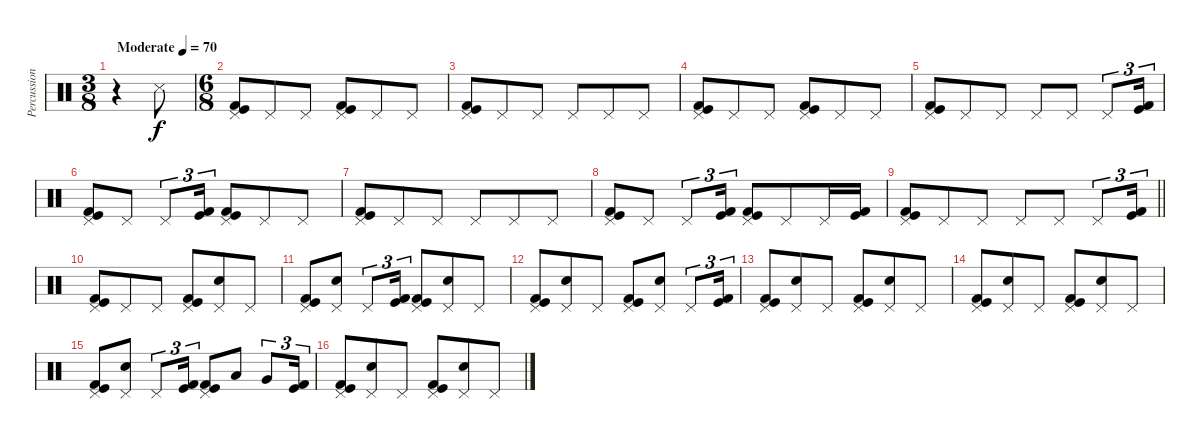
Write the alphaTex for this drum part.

\track ("Percussion" "Percussion") {instrument percussion}
\staff {score}
\articulation defaults
\ts (3 8)
\tempo (70 "Moderate")
\clef neutral
\ks c
r.4{dy f} "Snare (side stick) 3".8 |
\ts (6 8)
("Pedal Hi-Hat (hit)" "Kick (hit)" "Kick (hit) 2").8 "Pedal Hi-Hat (hit)".8 "Pedal Hi-Hat (hit)".8 ("Pedal Hi-Hat (hit)" "Kick (hit)" "Kick (hit) 2").8 "Pedal Hi-Hat (hit)".8 "Pedal Hi-Hat (hit)".8 |
("Pedal Hi-Hat (hit)" "Kick (hit)" "Kick (hit) 2").8 "Pedal Hi-Hat (hit)".8 "Pedal Hi-Hat (hit)".8 "Pedal Hi-Hat (hit)".8 "Pedal Hi-Hat (hit)".8 "Pedal Hi-Hat (hit)".8 |
("Pedal Hi-Hat (hit)" "Kick (hit)" "Kick (hit) 2").8 "Pedal Hi-Hat (hit)".8 "Pedal Hi-Hat (hit)".8 ("Pedal Hi-Hat (hit)" "Kick (hit)" "Kick (hit) 2").8 "Pedal Hi-Hat (hit)".8 "Pedal Hi-Hat (hit)".8 |
("Pedal Hi-Hat (hit)" "Kick (hit)" "Kick (hit) 2").8 "Pedal Hi-Hat (hit)".8 "Pedal Hi-Hat (hit)".8 "Pedal Hi-Hat (hit)".8 "Pedal Hi-Hat (hit)".8 "Pedal Hi-Hat (hit)".8{tu (3 2)} ("Kick (hit)" "Kick (hit) 2").16{tu (3 2)} |
("Pedal Hi-Hat (hit)" "Kick (hit)" "Kick (hit) 2").8 "Pedal Hi-Hat (hit)".8 "Pedal Hi-Hat (hit)".8{tu (3 2)} ("Kick (hit)" "Kick (hit) 2").16{tu (3 2)} ("Pedal Hi-Hat (hit)" "Kick (hit)" "Kick (hit) 2").8 "Pedal Hi-Hat (hit)".8 "Pedal Hi-Hat (hit)".8 |
("Pedal Hi-Hat (hit)" "Kick (hit)" "Kick (hit) 2").8 "Pedal Hi-Hat (hit)".8 "Pedal Hi-Hat (hit)".8 "Pedal Hi-Hat (hit)".8 "Pedal Hi-Hat (hit)".8 "Pedal Hi-Hat (hit)".8 |
("Pedal Hi-Hat (hit)" "Kick (hit)" "Kick (hit) 2").8 "Pedal Hi-Hat (hit)".8 "Pedal Hi-Hat (hit)".8{tu (3 2)} ("Kick (hit)" "Kick (hit) 2").16{tu (3 2)} ("Pedal Hi-Hat (hit)" "Kick (hit)" "Kick (hit) 2").8 "Pedal Hi-Hat (hit)".8 "Pedal Hi-Hat (hit)".16 ("Kick (hit)" "Kick (hit) 2").16 |
\barLineRight lightlight
("Pedal Hi-Hat (hit)" "Kick (hit)" "Kick (hit) 2").8 "Pedal Hi-Hat (hit)".8 "Pedal Hi-Hat (hit)".8 "Pedal Hi-Hat (hit)".8 "Pedal Hi-Hat (hit)".8 "Pedal Hi-Hat (hit)".8{tu (3 2)} ("Kick (hit)" "Kick (hit) 2").16{tu (3 2)} |
\section ("" "")
("Pedal Hi-Hat (hit)" "Kick (hit)" "Kick (hit) 2").8 "Pedal Hi-Hat (hit)".8 "Pedal Hi-Hat (hit)".8 ("Pedal Hi-Hat (hit)" "Kick (hit)" "Kick (hit) 2").8 ("Pedal Hi-Hat (hit)" "Electric Snare (hit)").8 "Pedal Hi-Hat (hit)".8 |
("Pedal Hi-Hat (hit)" "Kick (hit)" "Kick (hit) 2").8 ("Pedal Hi-Hat (hit)" "Electric Snare (hit)").8 "Pedal Hi-Hat (hit)".8{tu (3 2)} ("Kick (hit)" "Kick (hit) 2").16{tu (3 2)} ("Pedal Hi-Hat (hit)" "Kick (hit)" "Kick (hit) 2").8 ("Pedal Hi-Hat (hit)" "Electric Snare (hit)").8 "Pedal Hi-Hat (hit)".8 |
("Pedal Hi-Hat (hit)" "Kick (hit)" "Kick (hit) 2").8 ("Pedal Hi-Hat (hit)" "Electric Snare (hit)").8 "Pedal Hi-Hat (hit)".8 ("Pedal Hi-Hat (hit)" "Kick (hit)" "Kick (hit) 2").8 ("Pedal Hi-Hat (hit)" "Electric Snare (hit)").8 "Pedal Hi-Hat (hit)".8{tu (3 2)} ("Kick (hit)" "Kick (hit) 2").16{tu (3 2)} |
("Pedal Hi-Hat (hit)" "Kick (hit)" "Kick (hit) 2").8 ("Pedal Hi-Hat (hit)" "Electric Snare (hit)").8 "Pedal Hi-Hat (hit)".8 ("Pedal Hi-Hat (hit)" "Kick (hit)" "Kick (hit) 2").8 ("Pedal Hi-Hat (hit)" "Electric Snare (hit)").8 "Pedal Hi-Hat (hit)".8 |
("Pedal Hi-Hat (hit)" "Kick (hit)" "Kick (hit) 2").8 ("Pedal Hi-Hat (hit)" "Electric Snare (hit)").8 "Pedal Hi-Hat (hit)".8 ("Pedal Hi-Hat (hit)" "Kick (hit)" "Kick (hit) 2").8 ("Pedal Hi-Hat (hit)" "Electric Snare (hit)").8 "Pedal Hi-Hat (hit)".8 |
("Pedal Hi-Hat (hit)" "Kick (hit)" "Kick (hit) 2").8 ("Pedal Hi-Hat (hit)" "Electric Snare (hit)").8 "Pedal Hi-Hat (hit)".8{tu (3 2)} ("Kick (hit)" "Kick (hit) 2").16{tu (3 2)} ("Pedal Hi-Hat (hit)" "Kick (hit)" "Kick (hit) 2").8 "Low Tom (hit)".8 "Very Low Tom (hit)".8{tu (3 2)} ("Kick (hit)" "Kick (hit) 2").16{tu (3 2)} |
("Pedal Hi-Hat (hit)" "Kick (hit)" "Kick (hit) 2").8 ("Pedal Hi-Hat (hit)" "Electric Snare (hit)").8 "Pedal Hi-Hat (hit)".8 ("Pedal Hi-Hat (hit)" "Kick (hit)" "Kick (hit) 2").8 ("Pedal Hi-Hat (hit)" "Electric Snare (hit)").8 "Pedal Hi-Hat (hit)".8
